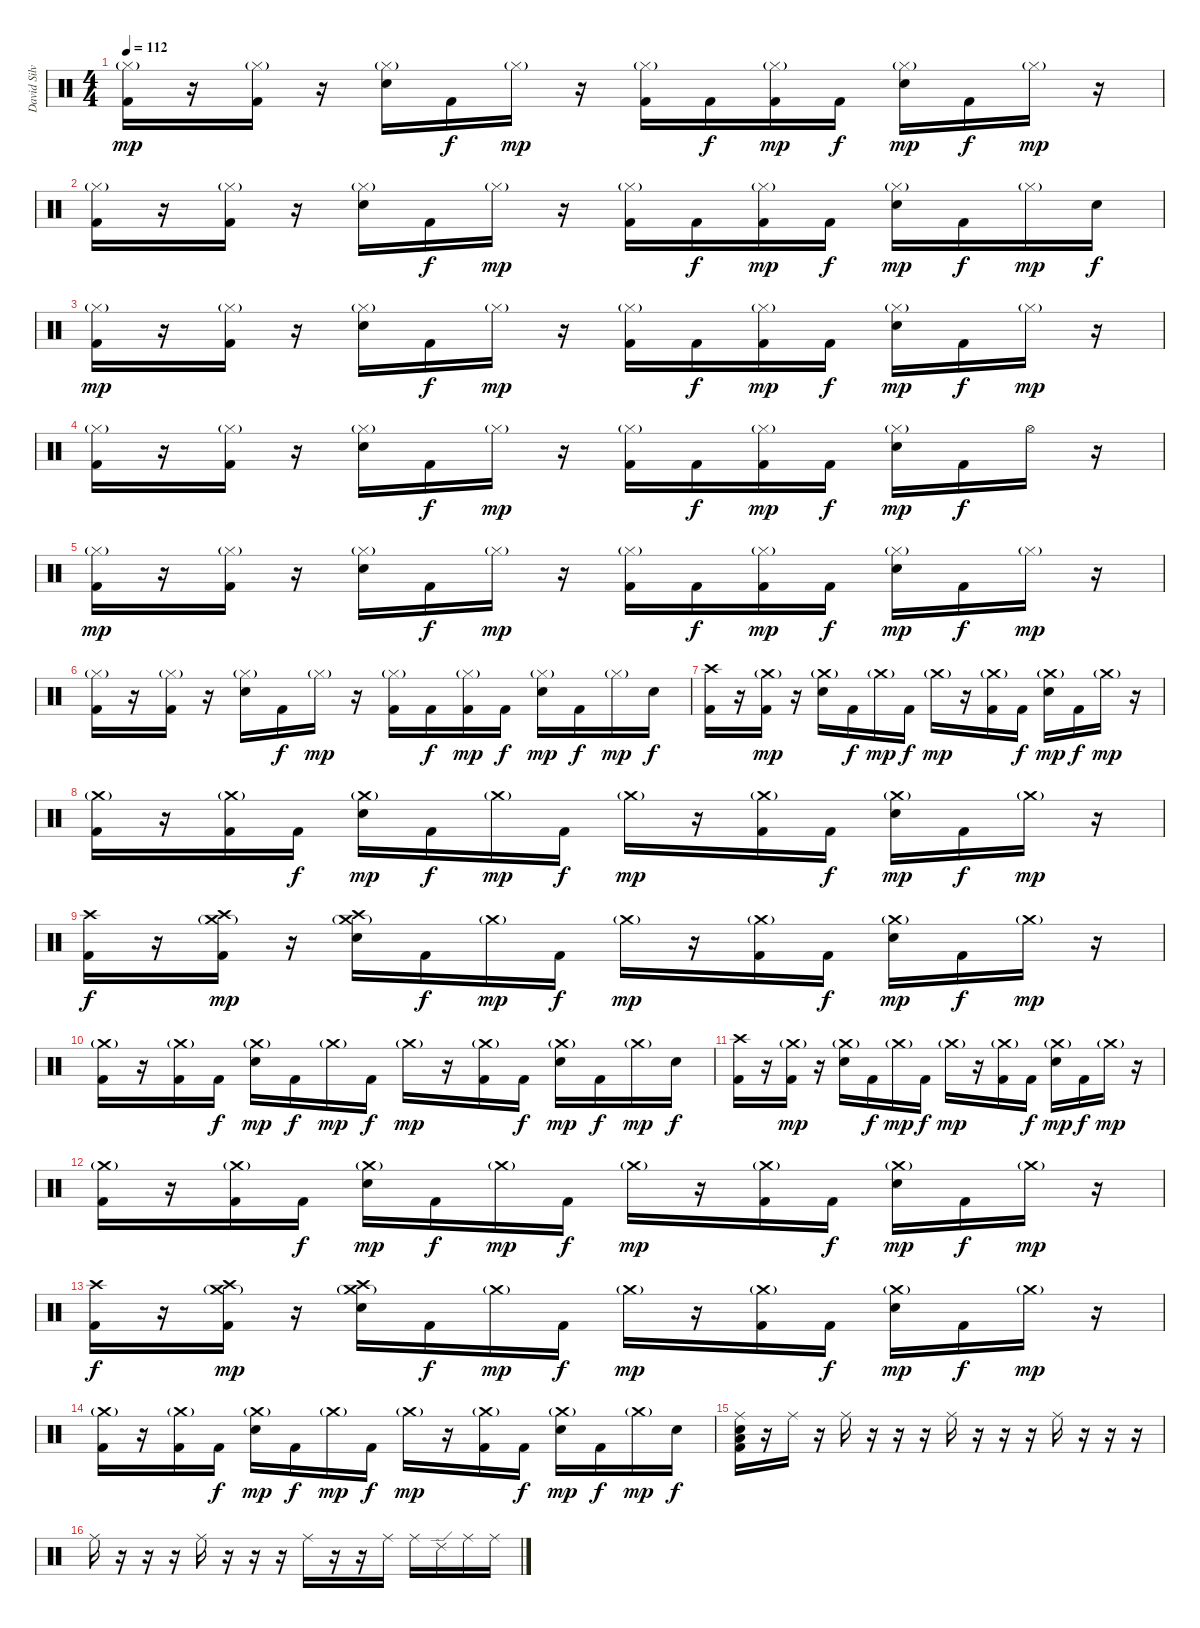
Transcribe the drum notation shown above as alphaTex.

\track ("David Silveria" "David Silv") {instrument percussion}
\staff {score}
\articulation defaults
\ts (4 4)
\tempo 112
\clef neutral
\ks c
("Hi-Hat (closed)"{g} "Kick (hit) 2").16{dy mp} r.16 ("Hi-Hat (closed)"{g} "Kick (hit) 2").16 r.16 ("Hi-Hat (closed)"{g} "Electric Snare (hit)").16 "Kick (hit) 2".16{dy f} "Hi-Hat (closed)"{g}.16{dy mp} r.16 ("Hi-Hat (closed)"{g} "Kick (hit) 2").16 "Kick (hit) 2".16{dy f} ("Hi-Hat (closed)"{g} "Kick (hit) 2").16{dy mp} "Kick (hit) 2".16{dy f} ("Hi-Hat (closed)"{g} "Electric Snare (hit)").16{dy mp} "Kick (hit) 2".16{dy f} "Hi-Hat (closed)"{g}.16{dy mp} r.16 |
("Hi-Hat (closed)"{g} "Kick (hit) 2").16 r.16 ("Hi-Hat (closed)"{g} "Kick (hit) 2").16 r.16 ("Hi-Hat (closed)"{g} "Electric Snare (hit)").16 "Kick (hit) 2".16{dy f} "Hi-Hat (closed)"{g}.16{dy mp} r.16 ("Hi-Hat (closed)"{g} "Kick (hit) 2").16 "Kick (hit) 2".16{dy f} ("Hi-Hat (closed)"{g} "Kick (hit) 2").16{dy mp} "Kick (hit) 2".16{dy f} ("Hi-Hat (closed)"{g} "Electric Snare (hit)").16{dy mp} "Kick (hit) 2".16{dy f} "Hi-Hat (closed)"{g}.16{dy mp} "Electric Snare (hit)".16{dy f} |
("Hi-Hat (closed)"{g} "Kick (hit) 2").16{dy mp} r.16 ("Hi-Hat (closed)"{g} "Kick (hit) 2").16 r.16 ("Hi-Hat (closed)"{g} "Electric Snare (hit)").16 "Kick (hit) 2".16{dy f} "Hi-Hat (closed)"{g}.16{dy mp} r.16 ("Hi-Hat (closed)"{g} "Kick (hit) 2").16 "Kick (hit) 2".16{dy f} ("Hi-Hat (closed)"{g} "Kick (hit) 2").16{dy mp} "Kick (hit) 2".16{dy f} ("Hi-Hat (closed)"{g} "Electric Snare (hit)").16{dy mp} "Kick (hit) 2".16{dy f} "Hi-Hat (closed)"{g}.16{dy mp} r.16 |
("Hi-Hat (closed)"{g} "Kick (hit) 2").16 r.16 ("Hi-Hat (closed)"{g} "Kick (hit) 2").16 r.16 ("Hi-Hat (closed)"{g} "Electric Snare (hit)").16 "Kick (hit) 2".16{dy f} "Hi-Hat (closed)"{g}.16{dy mp} r.16 ("Hi-Hat (closed)"{g} "Kick (hit) 2").16 "Kick (hit) 2".16{dy f} ("Hi-Hat (closed)"{g} "Kick (hit) 2").16{dy mp} "Kick (hit) 2".16{dy f} ("Hi-Hat (closed)"{g} "Electric Snare (hit)").16{dy mp} "Kick (hit) 2".16{dy f} "Hi-Hat (open)".16 r.16 |
("Hi-Hat (closed)"{g} "Kick (hit) 2").16{dy mp} r.16 ("Hi-Hat (closed)"{g} "Kick (hit) 2").16 r.16 ("Hi-Hat (closed)"{g} "Electric Snare (hit)").16 "Kick (hit) 2".16{dy f} "Hi-Hat (closed)"{g}.16{dy mp} r.16 ("Hi-Hat (closed)"{g} "Kick (hit) 2").16 "Kick (hit) 2".16{dy f} ("Hi-Hat (closed)"{g} "Kick (hit) 2").16{dy mp} "Kick (hit) 2".16{dy f} ("Hi-Hat (closed)"{g} "Electric Snare (hit)").16{dy mp} "Kick (hit) 2".16{dy f} "Hi-Hat (closed)"{g}.16{dy mp} r.16 |
("Hi-Hat (closed)"{g} "Kick (hit) 2").16 r.16 ("Hi-Hat (closed)"{g} "Kick (hit) 2").16 r.16 ("Hi-Hat (closed)"{g} "Electric Snare (hit)").16 "Kick (hit) 2".16{dy f} "Hi-Hat (closed)"{g}.16{dy mp} r.16 ("Hi-Hat (closed)"{g} "Kick (hit) 2").16 "Kick (hit) 2".16{dy f} ("Hi-Hat (closed)"{g} "Kick (hit) 2").16{dy mp} "Kick (hit) 2".16{dy f} ("Hi-Hat (closed)"{g} "Electric Snare (hit)").16{dy mp} "Kick (hit) 2".16{dy f} "Hi-Hat (closed)"{g}.16{dy mp} "Electric Snare (hit)".16{dy f} |
("Crash high (hit)" "Kick (hit) 2").16 r.16 ("Crash medium (hit)"{g} "Kick (hit) 2").16{dy mp} r.16 ("Crash medium (hit)"{g} "Electric Snare (hit)").16 "Kick (hit) 2".16{dy f} "Crash medium (hit)"{g}.16{dy mp} "Kick (hit) 2".16{dy f} "Crash medium (hit)"{g}.16{dy mp} r.16 ("Crash medium (hit)"{g} "Kick (hit) 2").16 "Kick (hit) 2".16{dy f} ("Crash medium (hit)"{g} "Electric Snare (hit)").16{dy mp} "Kick (hit) 2".16{dy f} "Crash medium (hit)"{g}.16{dy mp} r.16 |
("Crash medium (hit)"{g} "Kick (hit) 2").16 r.16 ("Crash medium (hit)"{g} "Kick (hit) 2").16 "Kick (hit) 2".16{dy f} ("Crash medium (hit)"{g} "Electric Snare (hit)").16{dy mp} "Kick (hit) 2".16{dy f} "Crash medium (hit)"{g}.16{dy mp} "Kick (hit) 2".16{dy f} "Crash medium (hit)"{g}.16{dy mp} r.16 ("Crash medium (hit)"{g} "Kick (hit) 2").16 "Kick (hit) 2".16{dy f} ("Crash medium (hit)"{g} "Electric Snare (hit)").16{dy mp} "Kick (hit) 2".16{dy f} "Crash medium (hit)"{g}.16{dy mp} r.16 |
("Crash high (hit)" "Kick (hit) 2").16{dy f} r.16 ("Crash high (hit)" "Crash medium (hit)"{g} "Kick (hit) 2").16{dy mp} r.16 ("Crash high (hit)" "Crash medium (hit)"{g} "Electric Snare (hit)").16 "Kick (hit) 2".16{dy f} "Crash medium (hit)"{g}.16{dy mp} "Kick (hit) 2".16{dy f} "Crash medium (hit)"{g}.16{dy mp} r.16 ("Crash medium (hit)"{g} "Kick (hit) 2").16 "Kick (hit) 2".16{dy f} ("Crash medium (hit)"{g} "Electric Snare (hit)").16{dy mp} "Kick (hit) 2".16{dy f} "Crash medium (hit)"{g}.16{dy mp} r.16 |
("Crash medium (hit)"{g} "Kick (hit) 2").16 r.16 ("Crash medium (hit)"{g} "Kick (hit) 2").16 "Kick (hit) 2".16{dy f} ("Crash medium (hit)"{g} "Electric Snare (hit)").16{dy mp} "Kick (hit) 2".16{dy f} "Crash medium (hit)"{g}.16{dy mp} "Kick (hit) 2".16{dy f} "Crash medium (hit)"{g}.16{dy mp} r.16 ("Crash medium (hit)"{g} "Kick (hit) 2").16 "Kick (hit) 2".16{dy f} ("Crash medium (hit)"{g} "Electric Snare (hit)").16{dy mp} "Kick (hit) 2".16{dy f} "Crash medium (hit)"{g}.16{dy mp} "Electric Snare (hit)".16{dy f} |
("Crash high (hit)" "Kick (hit) 2").16 r.16 ("Crash medium (hit)"{g} "Kick (hit) 2").16{dy mp} r.16 ("Crash medium (hit)"{g} "Electric Snare (hit)").16 "Kick (hit) 2".16{dy f} "Crash medium (hit)"{g}.16{dy mp} "Kick (hit) 2".16{dy f} "Crash medium (hit)"{g}.16{dy mp} r.16 ("Crash medium (hit)"{g} "Kick (hit) 2").16 "Kick (hit) 2".16{dy f} ("Crash medium (hit)"{g} "Electric Snare (hit)").16{dy mp} "Kick (hit) 2".16{dy f} "Crash medium (hit)"{g}.16{dy mp} r.16 |
("Crash medium (hit)"{g} "Kick (hit) 2").16 r.16 ("Crash medium (hit)"{g} "Kick (hit) 2").16 "Kick (hit) 2".16{dy f} ("Crash medium (hit)"{g} "Electric Snare (hit)").16{dy mp} "Kick (hit) 2".16{dy f} "Crash medium (hit)"{g}.16{dy mp} "Kick (hit) 2".16{dy f} "Crash medium (hit)"{g}.16{dy mp} r.16 ("Crash medium (hit)"{g} "Kick (hit) 2").16 "Kick (hit) 2".16{dy f} ("Crash medium (hit)"{g} "Electric Snare (hit)").16{dy mp} "Kick (hit) 2".16{dy f} "Crash medium (hit)"{g}.16{dy mp} r.16 |
("Crash high (hit)" "Kick (hit) 2").16{dy f} r.16 ("Crash high (hit)" "Crash medium (hit)"{g} "Kick (hit) 2").16{dy mp} r.16 ("Crash high (hit)" "Crash medium (hit)"{g} "Electric Snare (hit)").16 "Kick (hit) 2".16{dy f} "Crash medium (hit)"{g}.16{dy mp} "Kick (hit) 2".16{dy f} "Crash medium (hit)"{g}.16{dy mp} r.16 ("Crash medium (hit)"{g} "Kick (hit) 2").16 "Kick (hit) 2".16{dy f} ("Crash medium (hit)"{g} "Electric Snare (hit)").16{dy mp} "Kick (hit) 2".16{dy f} "Crash medium (hit)"{g}.16{dy mp} r.16 |
("Crash medium (hit)"{g} "Kick (hit) 2").16 r.16 ("Crash medium (hit)"{g} "Kick (hit) 2").16 "Kick (hit) 2".16{dy f} ("Crash medium (hit)"{g} "Electric Snare (hit)").16{dy mp} "Kick (hit) 2".16{dy f} "Crash medium (hit)"{g}.16{dy mp} "Kick (hit) 2".16{dy f} "Crash medium (hit)"{g}.16{dy mp} r.16 ("Crash medium (hit)"{g} "Kick (hit) 2").16 "Kick (hit) 2".16{dy f} ("Crash medium (hit)"{g} "Electric Snare (hit)").16{dy mp} "Kick (hit) 2".16{dy f} "Crash medium (hit)"{g}.16{dy mp} "Electric Snare (hit)".16{dy f} |
("Ride (middle)" "Electric Snare (hit)" "Low Floor Tom (hit)" "Kick (hit) 2").16 r.16 "Ride (middle)".16 r.16 "Ride (middle)".16 r.16 r.16 r.16 "Ride (middle)".16 r.16 r.16 r.16 "Ride (middle)".16 r.16 r.16 r.16 |
"Ride (middle)".16 r.16 r.16 r.16 "Ride (middle)".16 r.16 r.16 r.16 "Ride (middle)".16 r.16 r.16 "Ride (middle)".16 "Ride (middle)".16 "Ride (edge) 2".16 "Ride (middle)".16 "Ride (middle)".16
